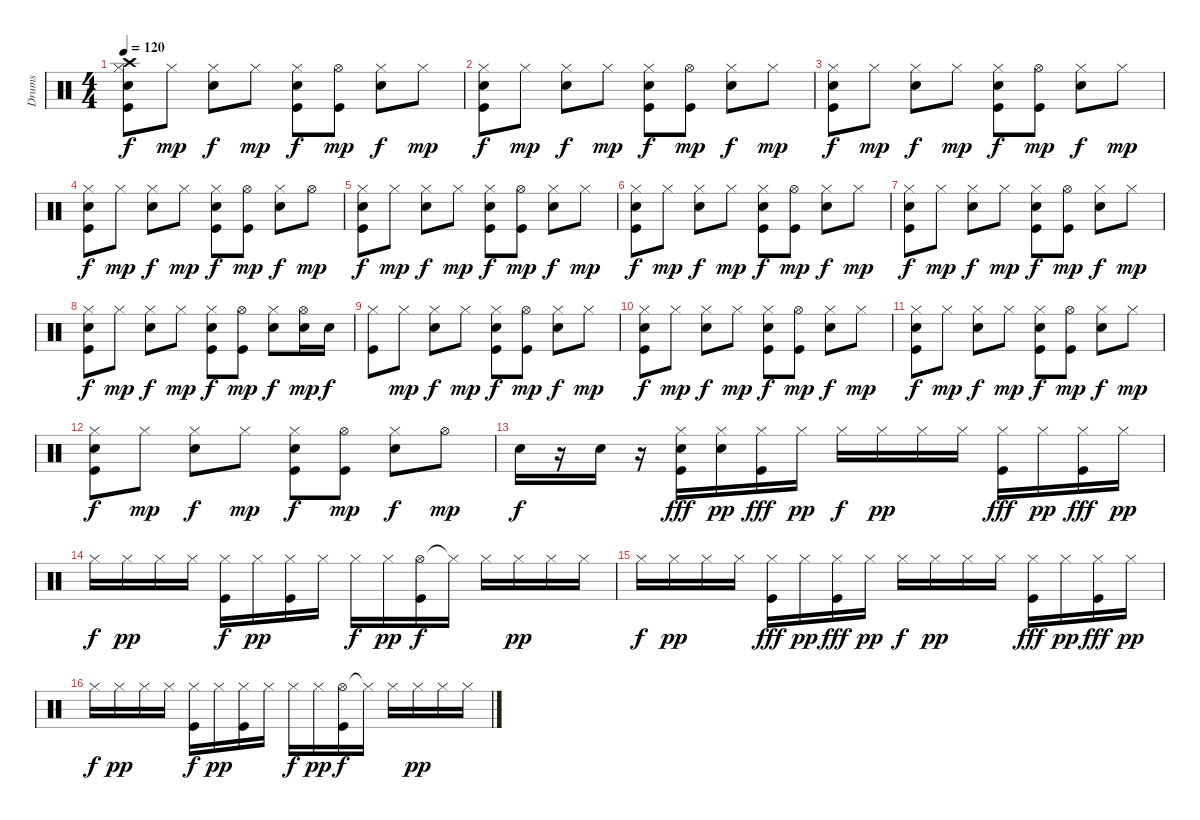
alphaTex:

\track ("Drums" "Drums") {instrument percussion}
\staff {score}
\articulation defaults
\ts (4 4)
\tempo 120
\clef neutral
\ks c
("Hi-Hat (closed)" "Crash high (hit)" "Electric Snare (hit)" "Kick (hit)").8{dy f} "Hi-Hat (closed)".8{dy mp} ("Hi-Hat (closed)" "Electric Snare (hit)").8{dy f} "Hi-Hat (closed)".8{dy mp} ("Hi-Hat (closed)" "Electric Snare (hit)" "Kick (hit)").8{dy f} ("Hi-Hat (open)" "Kick (hit)").8{dy mp} ("Hi-Hat (closed)" "Electric Snare (hit)").8{dy f} "Hi-Hat (closed)".8{dy mp} |
("Hi-Hat (closed)" "Electric Snare (hit)" "Kick (hit)").8{dy f} "Hi-Hat (closed)".8{dy mp} ("Hi-Hat (closed)" "Electric Snare (hit)").8{dy f} "Hi-Hat (closed)".8{dy mp} ("Hi-Hat (closed)" "Electric Snare (hit)" "Kick (hit)").8{dy f} ("Hi-Hat (open)" "Kick (hit)").8{dy mp} ("Hi-Hat (closed)" "Electric Snare (hit)").8{dy f} "Hi-Hat (closed)".8{dy mp} |
("Hi-Hat (closed)" "Electric Snare (hit)" "Kick (hit)").8{dy f} "Hi-Hat (closed)".8{dy mp} ("Hi-Hat (closed)" "Electric Snare (hit)").8{dy f} "Hi-Hat (closed)".8{dy mp} ("Hi-Hat (closed)" "Electric Snare (hit)" "Kick (hit)").8{dy f} ("Hi-Hat (open)" "Kick (hit)").8{dy mp} ("Hi-Hat (closed)" "Electric Snare (hit)").8{dy f} "Hi-Hat (closed)".8{dy mp} |
("Hi-Hat (closed)" "Electric Snare (hit)" "Kick (hit)").8{dy f} "Hi-Hat (closed)".8{dy mp} ("Hi-Hat (closed)" "Electric Snare (hit)").8{dy f} "Hi-Hat (closed)".8{dy mp} ("Hi-Hat (closed)" "Electric Snare (hit)" "Kick (hit)").8{dy f} ("Hi-Hat (open)" "Kick (hit)").8{dy mp} ("Hi-Hat (closed)" "Electric Snare (hit)").8{dy f} "Hi-Hat (open)".8{dy mp} |
("Hi-Hat (closed)" "Electric Snare (hit)" "Kick (hit)").8{dy f} "Hi-Hat (closed)".8{dy mp} ("Hi-Hat (closed)" "Electric Snare (hit)").8{dy f} "Hi-Hat (closed)".8{dy mp} ("Hi-Hat (closed)" "Electric Snare (hit)" "Kick (hit)").8{dy f} ("Hi-Hat (open)" "Kick (hit)").8{dy mp} ("Hi-Hat (closed)" "Electric Snare (hit)").8{dy f} "Hi-Hat (closed)".8{dy mp} |
("Hi-Hat (closed)" "Electric Snare (hit)" "Kick (hit)").8{dy f} "Hi-Hat (closed)".8{dy mp} ("Hi-Hat (closed)" "Electric Snare (hit)").8{dy f} "Hi-Hat (closed)".8{dy mp} ("Hi-Hat (closed)" "Electric Snare (hit)" "Kick (hit)").8{dy f} ("Hi-Hat (open)" "Kick (hit)").8{dy mp} ("Hi-Hat (closed)" "Electric Snare (hit)").8{dy f} "Hi-Hat (closed)".8{dy mp} |
("Hi-Hat (closed)" "Electric Snare (hit)" "Kick (hit)").8{dy f} "Hi-Hat (closed)".8{dy mp} ("Hi-Hat (closed)" "Electric Snare (hit)").8{dy f} "Hi-Hat (closed)".8{dy mp} ("Hi-Hat (closed)" "Electric Snare (hit)" "Kick (hit)").8{dy f} ("Hi-Hat (open)" "Kick (hit)").8{dy mp} ("Hi-Hat (closed)" "Electric Snare (hit)").8{dy f} "Hi-Hat (closed)".8{dy mp} |
("Hi-Hat (closed)" "Electric Snare (hit)" "Kick (hit)").8{dy f} "Hi-Hat (closed)".8{dy mp} ("Hi-Hat (closed)" "Electric Snare (hit)").8{dy f} "Hi-Hat (closed)".8{dy mp} ("Hi-Hat (closed)" "Electric Snare (hit)" "Kick (hit)").8{dy f} ("Hi-Hat (open)" "Kick (hit)").8{dy mp} ("Hi-Hat (closed)" "Electric Snare (hit)").8{dy f} ("Hi-Hat (open)" "Electric Snare (hit)").16{dy mp} "Electric Snare (hit)".16{dy f} |
("Hi-Hat (closed)" "Kick (hit)").8 "Hi-Hat (closed)".8{dy mp} ("Hi-Hat (closed)" "Electric Snare (hit)").8{dy f} "Hi-Hat (closed)".8{dy mp} ("Hi-Hat (closed)" "Electric Snare (hit)" "Kick (hit)").8{dy f} ("Hi-Hat (open)" "Kick (hit)").8{dy mp} ("Hi-Hat (closed)" "Electric Snare (hit)").8{dy f} "Hi-Hat (closed)".8{dy mp} |
("Hi-Hat (closed)" "Electric Snare (hit)" "Kick (hit)").8{dy f} "Hi-Hat (closed)".8{dy mp} ("Hi-Hat (closed)" "Electric Snare (hit)").8{dy f} "Hi-Hat (closed)".8{dy mp} ("Hi-Hat (closed)" "Electric Snare (hit)" "Kick (hit)").8{dy f} ("Hi-Hat (open)" "Kick (hit)").8{dy mp} ("Hi-Hat (closed)" "Electric Snare (hit)").8{dy f} "Hi-Hat (closed)".8{dy mp} |
("Hi-Hat (closed)" "Electric Snare (hit)" "Kick (hit)").8{dy f} "Hi-Hat (closed)".8{dy mp} ("Hi-Hat (closed)" "Electric Snare (hit)").8{dy f} "Hi-Hat (closed)".8{dy mp} ("Hi-Hat (closed)" "Electric Snare (hit)" "Kick (hit)").8{dy f} ("Hi-Hat (open)" "Kick (hit)").8{dy mp} ("Hi-Hat (closed)" "Electric Snare (hit)").8{dy f} "Hi-Hat (closed)".8{dy mp} |
("Hi-Hat (closed)" "Electric Snare (hit)" "Kick (hit)").8{dy f} "Hi-Hat (closed)".8{dy mp} ("Hi-Hat (closed)" "Electric Snare (hit)").8{dy f} "Hi-Hat (closed)".8{dy mp} ("Hi-Hat (closed)" "Electric Snare (hit)" "Kick (hit)").8{dy f} ("Hi-Hat (open)" "Kick (hit)").8{dy mp} ("Hi-Hat (closed)" "Electric Snare (hit)").8{dy f} "Hi-Hat (open)".8{dy mp} |
"Electric Snare (hit)".16{dy f} r.16 "Electric Snare (hit)".16 r.16 ("Hi-Hat (closed)" "Electric Snare (hit)" "Kick (hit)").16{dy fff} ("Hi-Hat (closed)" "Electric Snare (hit)").16{dy pp} ("Hi-Hat (closed)" "Kick (hit)").16{dy fff} "Hi-Hat (closed)".16{dy pp} "Hi-Hat (closed)".16{dy f} "Hi-Hat (closed)".16{dy pp} "Hi-Hat (closed)".16 "Hi-Hat (closed)".16 ("Hi-Hat (closed)" "Kick (hit)").16{dy fff} "Hi-Hat (closed)".16{dy pp} ("Hi-Hat (closed)" "Kick (hit)").16{dy fff} "Hi-Hat (closed)".16{dy pp} |
"Hi-Hat (closed)".16{dy f} "Hi-Hat (closed)".16{dy pp} "Hi-Hat (closed)".16 "Hi-Hat (closed)".16 ("Hi-Hat (closed)" "Kick (hit)").16{dy f} "Hi-Hat (closed)".16{dy pp} ("Hi-Hat (closed)" "Kick (hit)").16 "Hi-Hat (closed)".16 "Hi-Hat (closed)".16{dy f} "Hi-Hat (closed)".16{dy pp} ("Hi-Hat (open)" "Kick (hit)").16{dy f} "Hi-Hat (closed)"{t}.16 "Hi-Hat (closed)".16 "Hi-Hat (closed)".16{dy pp} "Hi-Hat (closed)".16 "Hi-Hat (closed)".16 |
"Hi-Hat (closed)".16{dy f} "Hi-Hat (closed)".16{dy pp} "Hi-Hat (closed)".16 "Hi-Hat (closed)".16 ("Hi-Hat (closed)" "Kick (hit)").16{dy fff} "Hi-Hat (closed)".16{dy pp} ("Hi-Hat (closed)" "Kick (hit)").16{dy fff} "Hi-Hat (closed)".16{dy pp} "Hi-Hat (closed)".16{dy f} "Hi-Hat (closed)".16{dy pp} "Hi-Hat (closed)".16 "Hi-Hat (closed)".16 ("Hi-Hat (closed)" "Kick (hit)").16{dy fff} "Hi-Hat (closed)".16{dy pp} ("Hi-Hat (closed)" "Kick (hit)").16{dy fff} "Hi-Hat (closed)".16{dy pp} |
"Hi-Hat (closed)".16{dy f} "Hi-Hat (closed)".16{dy pp} "Hi-Hat (closed)".16 "Hi-Hat (closed)".16 ("Hi-Hat (closed)" "Kick (hit)").16{dy f} "Hi-Hat (closed)".16{dy pp} ("Hi-Hat (closed)" "Kick (hit)").16 "Hi-Hat (closed)".16 "Hi-Hat (closed)".16{dy f} "Hi-Hat (closed)".16{dy pp} ("Hi-Hat (open)" "Kick (hit)").16{dy f} "Hi-Hat (closed)"{t}.16 "Hi-Hat (closed)".16 "Hi-Hat (closed)".16{dy pp} "Hi-Hat (closed)".16 "Hi-Hat (closed)".16
